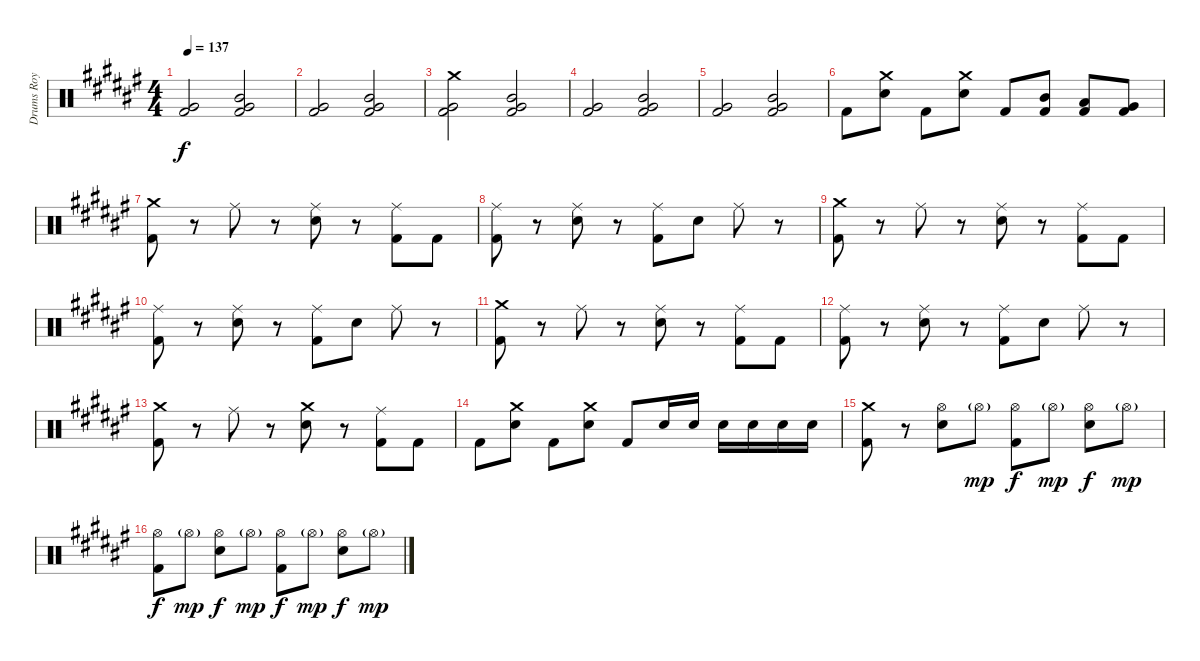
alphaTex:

\track ("Drums Roy mayorga" "Drums Roy ") {instrument percussion}
\staff {score}
\articulation defaults
\ts (4 4)
\tempo 137
\clef neutral
\ks d#minor
("Very Low Tom (hit)" "Kick (hit) 2").2{dy f} ("Mid Tom (hit)" "Very Low Tom (hit)" "Kick (hit) 2").2 |
("Very Low Tom (hit)" "Kick (hit) 2").2 ("Mid Tom (hit)" "Very Low Tom (hit)" "Kick (hit) 2").2 |
("Crash medium (hit)" "Very Low Tom (hit)" "Kick (hit) 2").2 ("Mid Tom (hit)" "Very Low Tom (hit)" "Kick (hit) 2").2 |
("Very Low Tom (hit)" "Kick (hit) 2").2 ("Mid Tom (hit)" "Very Low Tom (hit)" "Kick (hit) 2").2 |
("Very Low Tom (hit)" "Kick (hit) 2").2 ("Mid Tom (hit)" "Very Low Tom (hit)" "Kick (hit) 2").2 |
"Kick (hit) 2".8 ("Crash medium (hit)" "Electric Snare (hit)").8 "Kick (hit) 2".8 ("Crash medium (hit)" "Electric Snare (hit)").8 "Kick (hit) 2".8 ("Mid Tom (hit)" "Kick (hit) 2").8 ("Low Tom (hit)" "Kick (hit) 2").8 ("Very Low Tom (hit)" "Kick (hit) 2").8 |
("Crash medium (hit)" "Kick (hit) 2").8 r.8 "Ride (middle)".8 r.8 ("Ride (middle)" "Electric Snare (hit)").8 r.8 ("Ride (middle)" "Kick (hit) 2").8 "Kick (hit) 2".8 |
("Ride (middle)" "Kick (hit) 2").8 r.8 ("Ride (middle)" "Electric Snare (hit)").8 r.8 ("Ride (middle)" "Kick (hit) 2").8 "Electric Snare (hit)".8 "Ride (middle)".8 r.8 |
("Crash medium (hit)" "Kick (hit) 2").8 r.8 "Ride (middle)".8 r.8 ("Ride (middle)" "Electric Snare (hit)").8 r.8 ("Ride (middle)" "Kick (hit) 2").8 "Kick (hit) 2".8 |
("Ride (middle)" "Kick (hit) 2").8 r.8 ("Ride (middle)" "Electric Snare (hit)").8 r.8 ("Ride (middle)" "Kick (hit) 2").8 "Electric Snare (hit)".8 "Ride (middle)".8 r.8 |
("Crash medium (hit)" "Kick (hit) 2").8 r.8 "Ride (middle)".8 r.8 ("Ride (middle)" "Electric Snare (hit)").8 r.8 ("Ride (middle)" "Kick (hit) 2").8 "Kick (hit) 2".8 |
("Ride (middle)" "Kick (hit) 2").8 r.8 ("Ride (middle)" "Electric Snare (hit)").8 r.8 ("Ride (middle)" "Kick (hit) 2").8 "Electric Snare (hit)".8 "Ride (middle)".8 r.8 |
("Crash medium (hit)" "Kick (hit) 2").8 r.8 "Ride (middle)".8 r.8 ("Crash medium (hit)" "Electric Snare (hit)").8 r.8 ("Ride (middle)" "Kick (hit) 2").8 "Kick (hit) 2".8 |
"Kick (hit) 2".8 ("Crash medium (hit)" "Electric Snare (hit)").8 "Kick (hit) 2".8 ("Crash medium (hit)" "Electric Snare (hit)").8 "Kick (hit) 2".8 "Electric Snare (hit)".16 "Electric Snare (hit)".16 "Electric Snare (hit)".16 "Electric Snare (hit)".16 "Electric Snare (hit)".16 "Electric Snare (hit)".16 |
("Crash medium (hit)" "Kick (hit) 2").8 r.8 ("Hi-Hat (open)" "Electric Snare (hit)").8 "Hi-Hat (open)"{g}.8{dy mp} ("Hi-Hat (open)" "Kick (hit) 2").8{dy f} "Hi-Hat (open)"{g}.8{dy mp} ("Hi-Hat (open)" "Electric Snare (hit)").8{dy f} "Hi-Hat (open)"{g}.8{dy mp} |
("Hi-Hat (open)" "Kick (hit) 2").8{dy f} "Hi-Hat (open)"{g}.8{dy mp} ("Hi-Hat (open)" "Electric Snare (hit)").8{dy f} "Hi-Hat (open)"{g}.8{dy mp} ("Hi-Hat (open)" "Kick (hit) 2").8{dy f} "Hi-Hat (open)"{g}.8{dy mp} ("Hi-Hat (open)" "Electric Snare (hit)").8{dy f} "Hi-Hat (open)"{g}.8{dy mp}
